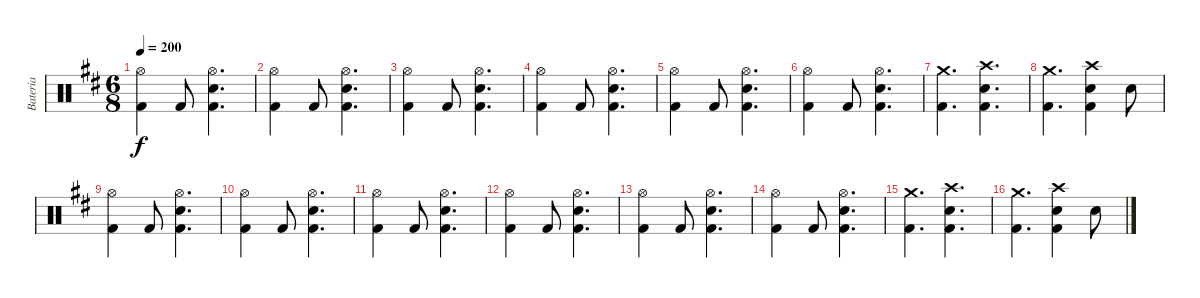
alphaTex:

\track ("Bateria" "Bateria") {instrument percussion}
\staff {score}
\articulation defaults
\ts (6 8)
\tempo 200
\clef neutral
\ks bminor
("Hi-Hat (open)" "Kick (hit) 2").4{dy f} "Kick (hit) 2".8 ("Hi-Hat (open)" "Electric Snare (hit)" "Kick (hit) 2").4{d} |
("Hi-Hat (open)" "Kick (hit) 2").4 "Kick (hit) 2".8 ("Hi-Hat (open)" "Electric Snare (hit)" "Kick (hit) 2").4{d} |
("Hi-Hat (open)" "Kick (hit) 2").4 "Kick (hit) 2".8 ("Hi-Hat (open)" "Electric Snare (hit)" "Kick (hit) 2").4{d} |
("Hi-Hat (open)" "Kick (hit) 2").4 "Kick (hit) 2".8 ("Hi-Hat (open)" "Electric Snare (hit)" "Kick (hit) 2").4{d} |
("Hi-Hat (open)" "Kick (hit) 2").4 "Kick (hit) 2".8 ("Hi-Hat (open)" "Electric Snare (hit)" "Kick (hit) 2").4{d} |
("Hi-Hat (open)" "Kick (hit) 2").4 "Kick (hit) 2".8 ("Hi-Hat (open)" "Electric Snare (hit)" "Kick (hit) 2").4{d} |
("Crash medium (hit)" "Kick (hit) 2").4{d} ("Crash high (hit)" "Electric Snare (hit)" "Kick (hit) 2").4{d} |
("Crash medium (hit)" "Kick (hit) 2").4{d} ("Crash high (hit)" "Electric Snare (hit)" "Kick (hit) 2").4 "Electric Snare (hit)".8 |
("Hi-Hat (open)" "Kick (hit) 2").4 "Kick (hit) 2".8 ("Hi-Hat (open)" "Electric Snare (hit)" "Kick (hit) 2").4{d} |
("Hi-Hat (open)" "Kick (hit) 2").4 "Kick (hit) 2".8 ("Hi-Hat (open)" "Electric Snare (hit)" "Kick (hit) 2").4{d} |
("Hi-Hat (open)" "Kick (hit) 2").4 "Kick (hit) 2".8 ("Hi-Hat (open)" "Electric Snare (hit)" "Kick (hit) 2").4{d} |
("Hi-Hat (open)" "Kick (hit) 2").4 "Kick (hit) 2".8 ("Hi-Hat (open)" "Electric Snare (hit)" "Kick (hit) 2").4{d} |
("Hi-Hat (open)" "Kick (hit) 2").4 "Kick (hit) 2".8 ("Hi-Hat (open)" "Electric Snare (hit)" "Kick (hit) 2").4{d} |
("Hi-Hat (open)" "Kick (hit) 2").4 "Kick (hit) 2".8 ("Hi-Hat (open)" "Electric Snare (hit)" "Kick (hit) 2").4{d} |
("Crash medium (hit)" "Kick (hit) 2").4{d} ("Crash high (hit)" "Electric Snare (hit)" "Kick (hit) 2").4{d} |
("Crash medium (hit)" "Kick (hit) 2").4{d} ("Crash high (hit)" "Electric Snare (hit)" "Kick (hit) 2").4 "Electric Snare (hit)".8
